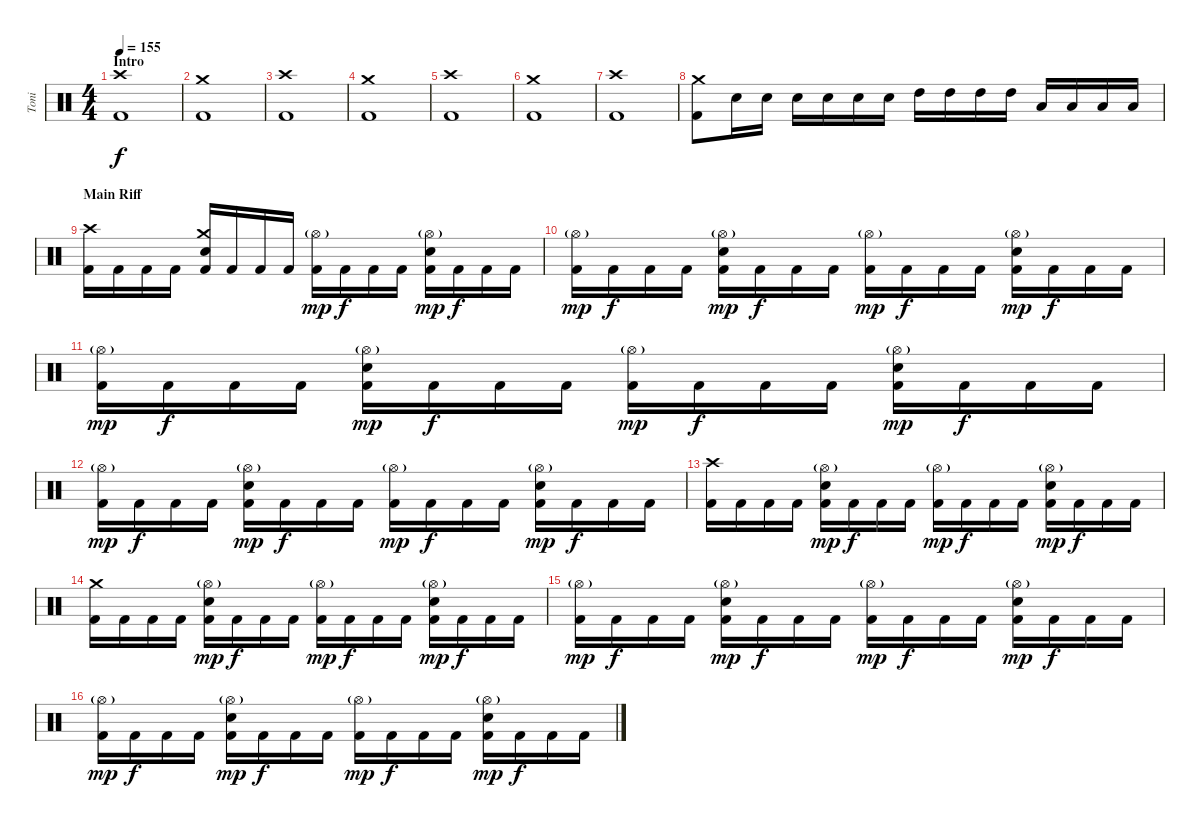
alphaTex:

\track ("Toni" "Toni") {instrument percussion}
\staff {score}
\articulation defaults
\ts (4 4)
\section ("" "Intro")
\tempo 155
\clef neutral
\ks c
("Crash high (hit)" "Kick (hit) 2").1{dy f} |
("Crash medium (hit)" "Kick (hit) 2").1 |
("Crash high (hit)" "Kick (hit) 2").1 |
("Crash medium (hit)" "Kick (hit) 2").1 |
("Crash high (hit)" "Kick (hit) 2").1 |
("Crash medium (hit)" "Kick (hit) 2").1 |
("Crash high (hit)" "Kick (hit) 2").1 |
("Crash medium (hit)" "Kick (hit) 2").8 "Electric Snare (hit)".16 "Electric Snare (hit)".16 "Electric Snare (hit)".16 "Electric Snare (hit)".16 "Electric Snare (hit)".16 "Electric Snare (hit)".16 "High Tom (hit)".16 "High Tom (hit)".16 "High Tom (hit)".16 "High Tom (hit)".16 "Low Tom (hit)".16 "Low Tom (hit)".16 "Low Tom (hit)".16 "Low Tom (hit)".16 |
\section ("" "Main Riff")
("Crash high (hit)" "Kick (hit) 2").16 "Kick (hit) 2".16 "Kick (hit) 2".16 "Kick (hit) 2".16 ("Crash medium (hit)" "Electric Snare (hit)" "Kick (hit) 2").16 "Kick (hit) 2".16 "Kick (hit) 2".16 "Kick (hit) 2".16 ("Hi-Hat (open)"{g} "Kick (hit) 2").16{dy mp} "Kick (hit) 2".16{dy f} "Kick (hit) 2".16 "Kick (hit) 2".16 ("Hi-Hat (open)"{g} "Electric Snare (hit)" "Kick (hit) 2").16{dy mp} "Kick (hit) 2".16{dy f} "Kick (hit) 2".16 "Kick (hit) 2".16 |
("Hi-Hat (open)"{g} "Kick (hit) 2").16{dy mp} "Kick (hit) 2".16{dy f} "Kick (hit) 2".16 "Kick (hit) 2".16 ("Hi-Hat (open)"{g} "Electric Snare (hit)" "Kick (hit) 2").16{dy mp} "Kick (hit) 2".16{dy f} "Kick (hit) 2".16 "Kick (hit) 2".16 ("Hi-Hat (open)"{g} "Kick (hit) 2").16{dy mp} "Kick (hit) 2".16{dy f} "Kick (hit) 2".16 "Kick (hit) 2".16 ("Hi-Hat (open)"{g} "Electric Snare (hit)" "Kick (hit) 2").16{dy mp} "Kick (hit) 2".16{dy f} "Kick (hit) 2".16 "Kick (hit) 2".16 |
("Hi-Hat (open)"{g} "Kick (hit) 2").16{dy mp} "Kick (hit) 2".16{dy f} "Kick (hit) 2".16 "Kick (hit) 2".16 ("Hi-Hat (open)"{g} "Electric Snare (hit)" "Kick (hit) 2").16{dy mp} "Kick (hit) 2".16{dy f} "Kick (hit) 2".16 "Kick (hit) 2".16 ("Hi-Hat (open)"{g} "Kick (hit) 2").16{dy mp} "Kick (hit) 2".16{dy f} "Kick (hit) 2".16 "Kick (hit) 2".16 ("Hi-Hat (open)"{g} "Electric Snare (hit)" "Kick (hit) 2").16{dy mp} "Kick (hit) 2".16{dy f} "Kick (hit) 2".16 "Kick (hit) 2".16 |
("Hi-Hat (open)"{g} "Kick (hit) 2").16{dy mp} "Kick (hit) 2".16{dy f} "Kick (hit) 2".16 "Kick (hit) 2".16 ("Hi-Hat (open)"{g} "Electric Snare (hit)" "Kick (hit) 2").16{dy mp} "Kick (hit) 2".16{dy f} "Kick (hit) 2".16 "Kick (hit) 2".16 ("Hi-Hat (open)"{g} "Kick (hit) 2").16{dy mp} "Kick (hit) 2".16{dy f} "Kick (hit) 2".16 "Kick (hit) 2".16 ("Hi-Hat (open)"{g} "Electric Snare (hit)" "Kick (hit) 2").16{dy mp} "Kick (hit) 2".16{dy f} "Kick (hit) 2".16 "Kick (hit) 2".16 |
("Crash high (hit)" "Kick (hit) 2").16 "Kick (hit) 2".16 "Kick (hit) 2".16 "Kick (hit) 2".16 ("Hi-Hat (open)"{g} "Electric Snare (hit)" "Kick (hit) 2").16{dy mp} "Kick (hit) 2".16{dy f} "Kick (hit) 2".16 "Kick (hit) 2".16 ("Hi-Hat (open)"{g} "Kick (hit) 2").16{dy mp} "Kick (hit) 2".16{dy f} "Kick (hit) 2".16 "Kick (hit) 2".16 ("Hi-Hat (open)"{g} "Electric Snare (hit)" "Kick (hit) 2").16{dy mp} "Kick (hit) 2".16{dy f} "Kick (hit) 2".16 "Kick (hit) 2".16 |
("Crash medium (hit)" "Kick (hit) 2").16 "Kick (hit) 2".16 "Kick (hit) 2".16 "Kick (hit) 2".16 ("Hi-Hat (open)"{g} "Electric Snare (hit)" "Kick (hit) 2").16{dy mp} "Kick (hit) 2".16{dy f} "Kick (hit) 2".16 "Kick (hit) 2".16 ("Hi-Hat (open)"{g} "Kick (hit) 2").16{dy mp} "Kick (hit) 2".16{dy f} "Kick (hit) 2".16 "Kick (hit) 2".16 ("Hi-Hat (open)"{g} "Electric Snare (hit)" "Kick (hit) 2").16{dy mp} "Kick (hit) 2".16{dy f} "Kick (hit) 2".16 "Kick (hit) 2".16 |
("Hi-Hat (open)"{g} "Kick (hit) 2").16{dy mp} "Kick (hit) 2".16{dy f} "Kick (hit) 2".16 "Kick (hit) 2".16 ("Hi-Hat (open)"{g} "Electric Snare (hit)" "Kick (hit) 2").16{dy mp} "Kick (hit) 2".16{dy f} "Kick (hit) 2".16 "Kick (hit) 2".16 ("Hi-Hat (open)"{g} "Kick (hit) 2").16{dy mp} "Kick (hit) 2".16{dy f} "Kick (hit) 2".16 "Kick (hit) 2".16 ("Hi-Hat (open)"{g} "Electric Snare (hit)" "Kick (hit) 2").16{dy mp} "Kick (hit) 2".16{dy f} "Kick (hit) 2".16 "Kick (hit) 2".16 |
("Hi-Hat (open)"{g} "Kick (hit) 2").16{dy mp} "Kick (hit) 2".16{dy f} "Kick (hit) 2".16 "Kick (hit) 2".16 ("Hi-Hat (open)"{g} "Electric Snare (hit)" "Kick (hit) 2").16{dy mp} "Kick (hit) 2".16{dy f} "Kick (hit) 2".16 "Kick (hit) 2".16 ("Hi-Hat (open)"{g} "Kick (hit) 2").16{dy mp} "Kick (hit) 2".16{dy f} "Kick (hit) 2".16 "Kick (hit) 2".16 ("Hi-Hat (open)"{g} "Electric Snare (hit)" "Kick (hit) 2").16{dy mp} "Kick (hit) 2".16{dy f} "Kick (hit) 2".16 "Kick (hit) 2".16
